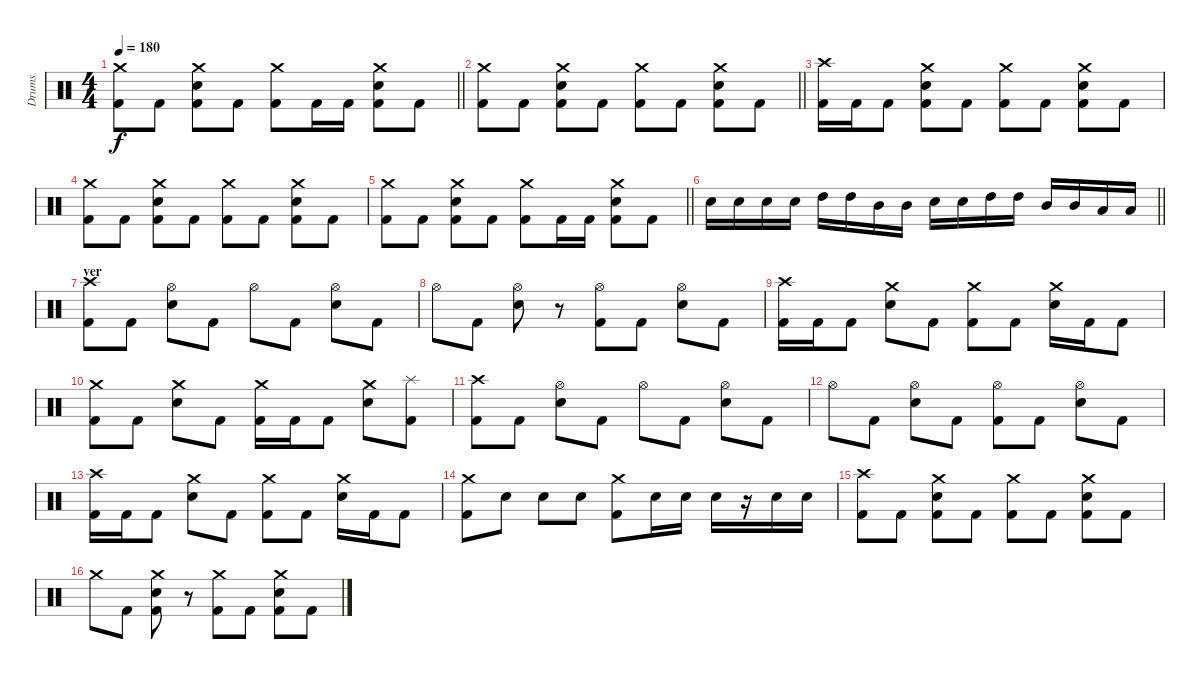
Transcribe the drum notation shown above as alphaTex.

\track ("Drums" "Drums") {instrument percussion}
\staff {score}
\articulation defaults
\ts (4 4)
\tempo 180
\clef neutral
\barLineRight lightlight
\ks c
("Crash medium (hit)" "Kick (hit) 2").8{dy f} "Kick (hit) 2".8 ("Crash medium (hit)" "Electric Snare (hit)" "Kick (hit) 2").8 "Kick (hit) 2".8 ("Crash medium (hit)" "Kick (hit) 2").8 "Kick (hit) 2".16 "Kick (hit) 2".16 ("Crash medium (hit)" "Electric Snare (hit)" "Kick (hit) 2").8 "Kick (hit) 2".8 |
\barLineRight lightlight
("Crash medium (hit)" "Kick (hit) 2").8 "Kick (hit) 2".8 ("Crash medium (hit)" "Electric Snare (hit)" "Kick (hit) 2").8 "Kick (hit) 2".8 ("Crash medium (hit)" "Kick (hit) 2").8 "Kick (hit) 2".8 ("Crash medium (hit)" "Electric Snare (hit)" "Kick (hit) 2").8 "Kick (hit) 2".8 |
("Crash high (hit)" "Kick (hit) 2").16 "Kick (hit) 2".16 "Kick (hit) 2".8 ("Crash medium (hit)" "Electric Snare (hit)" "Kick (hit) 2").8 "Kick (hit) 2".8 ("Crash medium (hit)" "Kick (hit) 2").8 "Kick (hit) 2".8 ("Crash medium (hit)" "Electric Snare (hit)" "Kick (hit) 2").8 "Kick (hit) 2".8 |
("Crash medium (hit)" "Kick (hit) 2").8 "Kick (hit) 2".8 ("Crash medium (hit)" "Electric Snare (hit)" "Kick (hit) 2").8 "Kick (hit) 2".8 ("Crash medium (hit)" "Kick (hit) 2").8 "Kick (hit) 2".8 ("Crash medium (hit)" "Electric Snare (hit)" "Kick (hit) 2").8 "Kick (hit) 2".8 |
\barLineRight lightlight
("Crash medium (hit)" "Kick (hit) 2").8 "Kick (hit) 2".8 ("Crash medium (hit)" "Electric Snare (hit)" "Kick (hit) 2").8 "Kick (hit) 2".8 ("Crash medium (hit)" "Kick (hit) 2").8 "Kick (hit) 2".16 "Kick (hit) 2".16 ("Crash medium (hit)" "Electric Snare (hit)" "Kick (hit) 2").8 "Kick (hit) 2".8 |
\barLineRight lightlight "Electric Snare (hit)".16 "Electric Snare (hit)".16 "Electric Snare (hit)".16 "Electric Snare (hit)".16 "High Tom (hit)".16 "High Tom (hit)".16 "Mid Tom (hit)".16 "Mid Tom (hit)".16 "Electric Snare (hit)".16 "Electric Snare (hit)".16 "High Tom (hit)".16 "High Tom (hit)".16 "Mid Tom (hit)".16 "Mid Tom (hit)".16 "Low Tom (hit)".16 "Low Tom (hit)".16
|
\section ("" "ver")
("Crash high (hit)" "Kick (hit) 2").8 "Kick (hit) 2".8 ("Hi-Hat (open)" "Electric Snare (hit)").8 "Kick (hit) 2".8 "Hi-Hat (open)".8 "Kick (hit) 2".8 ("Hi-Hat (open)" "Electric Snare (hit)").8 "Kick (hit) 2".8 |
"Hi-Hat (open)".8 "Kick (hit) 2".8 ("Hi-Hat (open)" "Electric Snare (hit)").8 r.8 ("Hi-Hat (open)" "Kick (hit) 2").8 "Kick (hit) 2".8 ("Hi-Hat (open)" "Electric Snare (hit)").8 "Kick (hit) 2".8 |
("Crash high (hit)" "Kick (hit) 2").16 "Kick (hit) 2".16 "Kick (hit) 2".8 ("Crash medium (hit)" "Electric Snare (hit)").8 "Kick (hit) 2".8 ("Crash medium (hit)" "Kick (hit) 2").8 "Kick (hit) 2".8 ("Crash medium (hit)" "Electric Snare (hit)").16 "Kick (hit) 2".16 "Kick (hit) 2".8 |
("Crash medium (hit)" "Kick (hit) 2").8 "Kick (hit) 2".8 ("Crash medium (hit)" "Electric Snare (hit)").8 "Kick (hit) 2".8 ("Crash medium (hit)" "Kick (hit) 2").16 "Kick (hit) 2".16 "Kick (hit) 2".8 ("Crash medium (hit)" "Electric Snare (hit)").8 ("Splash (hit)" "Kick (hit) 2").8 |
("Crash high (hit)" "Kick (hit) 2").8 "Kick (hit) 2".8 ("Hi-Hat (open)" "Electric Snare (hit)").8 "Kick (hit) 2".8 "Hi-Hat (open)".8 "Kick (hit) 2".8 ("Hi-Hat (open)" "Electric Snare (hit)").8 "Kick (hit) 2".8 |
"Hi-Hat (open)".8 "Kick (hit) 2".8 ("Hi-Hat (open)" "Electric Snare (hit)").8 "Kick (hit) 2".8 ("Hi-Hat (open)" "Kick (hit) 2").8 "Kick (hit) 2".8 ("Hi-Hat (open)" "Electric Snare (hit)").8 "Kick (hit) 2".8 |
("Crash high (hit)" "Kick (hit) 2").16 "Kick (hit) 2".16 "Kick (hit) 2".8 ("Crash medium (hit)" "Electric Snare (hit)").8 "Kick (hit) 2".8 ("Crash medium (hit)" "Kick (hit) 2").8 "Kick (hit) 2".8 ("Crash medium (hit)" "Electric Snare (hit)").16 "Kick (hit) 2".16 "Kick (hit) 2".8 |
("Crash medium (hit)" "Kick (hit) 2").8 "Electric Snare (hit)".8 "Electric Snare (hit)".8 "Electric Snare (hit)".8 ("Crash medium (hit)" "Kick (hit) 2").8 "Electric Snare (hit)".16 "Electric Snare (hit)".16 "Electric Snare (hit)".16 r.16 "Electric Snare (hit)".16 "Electric Snare (hit)".16 |
("Crash high (hit)" "Kick (hit) 2").8 "Kick (hit) 2".8 ("Crash medium (hit)" "Electric Snare (hit)" "Kick (hit) 2").8 "Kick (hit) 2".8 ("Crash medium (hit)" "Kick (hit) 2").8 "Kick (hit) 2".8 ("Crash medium (hit)" "Electric Snare (hit)" "Kick (hit) 2").8 "Kick (hit) 2".8 |
"Crash medium (hit)".8 "Kick (hit) 2".8 ("Crash medium (hit)" "Electric Snare (hit)" "Kick (hit) 2").8 r.8 ("Crash medium (hit)" "Kick (hit) 2").8 "Kick (hit) 2".8 ("Crash medium (hit)" "Electric Snare (hit)" "Kick (hit) 2").8 "Kick (hit) 2".8
